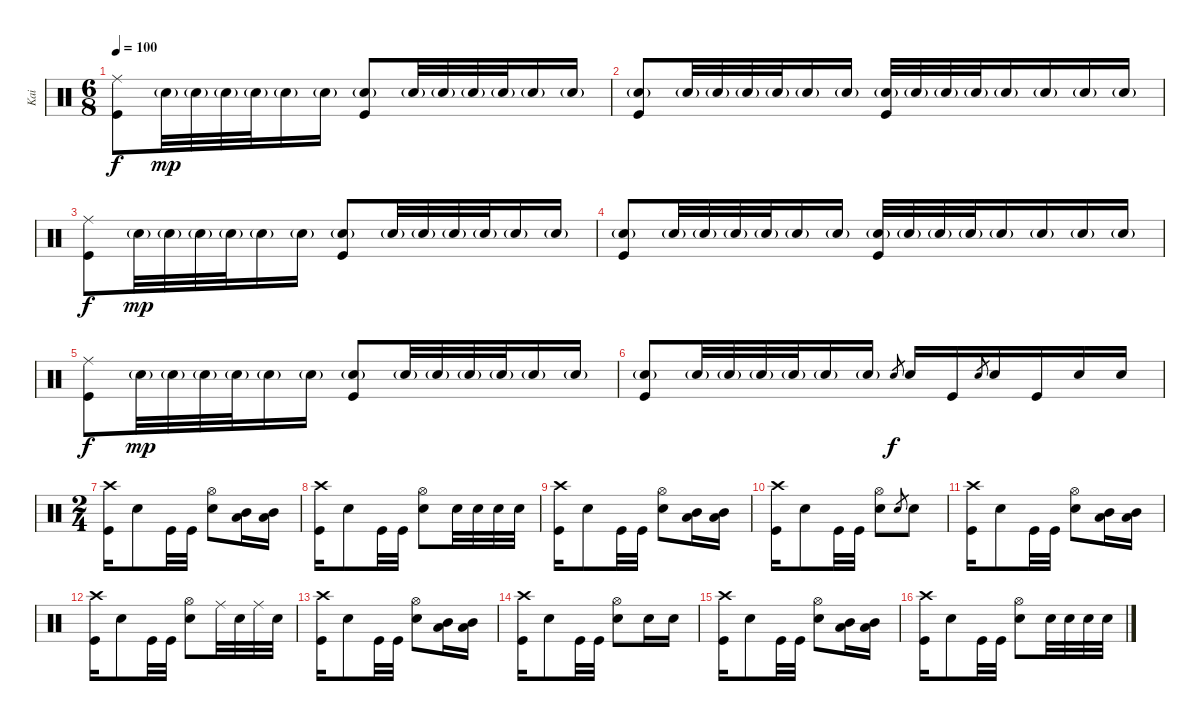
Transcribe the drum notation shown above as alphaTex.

\track ("Kai" "Kai") {instrument percussion}
\staff {score}
\articulation defaults
\ts (6 8)
\tempo 100
\clef neutral
\ks c
("Ride (middle)" "Kick (hit)").8{dy f} "Snare (hit) 2"{g}.32{dy mp} "Snare (hit) 2"{g}.32 "Snare (hit) 2"{g}.32 "Snare (hit) 2"{g}.32 "Snare (hit) 2"{g}.16 "Snare (hit) 2"{g}.16 ("Snare (hit) 2"{g} "Kick (hit)").8 "Snare (hit) 2"{g}.32 "Snare (hit) 2"{g}.32 "Snare (hit) 2"{g}.32 "Snare (hit) 2"{g}.32 "Snare (hit) 2"{g}.16 "Snare (hit) 2"{g}.16 |
("Snare (hit) 2"{g} "Kick (hit)").8 "Snare (hit) 2"{g}.32 "Snare (hit) 2"{g}.32 "Snare (hit) 2"{g}.32 "Snare (hit) 2"{g}.32 "Snare (hit) 2"{g}.16 "Snare (hit) 2"{g}.16 ("Snare (hit) 2"{g} "Kick (hit)").32 "Snare (hit) 2"{g}.32 "Snare (hit) 2"{g}.32 "Snare (hit) 2"{g}.32 "Snare (hit) 2"{g}.16 "Snare (hit) 2"{g}.16 "Snare (hit) 2"{g}.16 "Snare (hit) 2"{g}.16 |
("Ride (middle)" "Kick (hit)").8{dy f} "Snare (hit) 2"{g}.32{dy mp} "Snare (hit) 2"{g}.32 "Snare (hit) 2"{g}.32 "Snare (hit) 2"{g}.32 "Snare (hit) 2"{g}.16 "Snare (hit) 2"{g}.16 ("Snare (hit) 2"{g} "Kick (hit)").8 "Snare (hit) 2"{g}.32 "Snare (hit) 2"{g}.32 "Snare (hit) 2"{g}.32 "Snare (hit) 2"{g}.32 "Snare (hit) 2"{g}.16 "Snare (hit) 2"{g}.16 |
("Snare (hit) 2"{g} "Kick (hit)").8 "Snare (hit) 2"{g}.32 "Snare (hit) 2"{g}.32 "Snare (hit) 2"{g}.32 "Snare (hit) 2"{g}.32 "Snare (hit) 2"{g}.16 "Snare (hit) 2"{g}.16 ("Snare (hit) 2"{g} "Kick (hit)").32 "Snare (hit) 2"{g}.32 "Snare (hit) 2"{g}.32 "Snare (hit) 2"{g}.32 "Snare (hit) 2"{g}.16 "Snare (hit) 2"{g}.16 "Snare (hit) 2"{g}.16 "Snare (hit) 2"{g}.16 |
("Ride (middle)" "Kick (hit)").8{dy f} "Snare (hit) 2"{g}.32{dy mp} "Snare (hit) 2"{g}.32 "Snare (hit) 2"{g}.32 "Snare (hit) 2"{g}.32 "Snare (hit) 2"{g}.16 "Snare (hit) 2"{g}.16 ("Snare (hit) 2"{g} "Kick (hit)").8 "Snare (hit) 2"{g}.32 "Snare (hit) 2"{g}.32 "Snare (hit) 2"{g}.32 "Snare (hit) 2"{g}.32 "Snare (hit) 2"{g}.16 "Snare (hit) 2"{g}.16 |
("Snare (hit) 2"{g} "Kick (hit)").8 "Snare (hit) 2"{g}.32 "Snare (hit) 2"{g}.32 "Snare (hit) 2"{g}.32 "Snare (hit) 2"{g}.32 "Snare (hit) 2"{g}.16 "Snare (hit) 2"{g}.16 "Snare (hit) 2".8{gr dy f} "Snare (hit) 2".16 "Kick (hit)".16 "Snare (hit) 2".8{gr} "Snare (hit) 2".16 "Kick (hit)".16 "Snare (hit) 2".16 "Snare (hit) 2".16 |
\ts (2 4)
("Crash high (hit)" "Kick (hit)").16 "Snare (hit) 2".8 "Kick (hit)".32 "Kick (hit)".32 ("Hi-Hat (open)" "Snare (hit) 2").8 ("Low Tom (hit)" "Mid Tom (hit)").16 ("Low Tom (hit)" "Mid Tom (hit)").16 |
("Crash high (hit)" "Kick (hit)").16 "Snare (hit) 2".8 "Kick (hit)".32 "Kick (hit)".32 ("Hi-Hat (open)" "Snare (hit) 2").8 "Snare (hit) 2".32 "Snare (hit) 2".32 "Snare (hit) 2".32 "Snare (hit) 2".32 |
("Crash high (hit)" "Kick (hit)").16 "Snare (hit) 2".8 "Kick (hit)".32 "Kick (hit)".32 ("Hi-Hat (open)" "Snare (hit) 2").8 ("Low Tom (hit)" "Mid Tom (hit)").16 ("Low Tom (hit)" "Mid Tom (hit)").16 |
("Crash high (hit)" "Kick (hit)").16 "Snare (hit) 2".8 "Kick (hit)".32 "Kick (hit)".32 ("Hi-Hat (open)" "Snare (hit) 2").8 "Snare (hit) 2".8{gr} "Snare (hit) 2".8 |
("Crash high (hit)" "Kick (hit)").16 "Snare (hit) 2".8 "Kick (hit)".32 "Kick (hit)".32 ("Hi-Hat (open)" "Snare (hit) 2").8 ("Low Tom (hit)" "Mid Tom (hit)").16 ("Low Tom (hit)" "Mid Tom (hit)").16 |
("Crash high (hit)" "Kick (hit)").16 "Snare (hit) 2".8 "Kick (hit)".32 "Kick (hit)".32 ("Hi-Hat (open)" "Snare (hit) 2").8 "Ride (middle)".32 "Snare (hit) 2".32 "Ride (middle)".32 "Snare (hit) 2".32 |
("Crash high (hit)" "Kick (hit)").16 "Snare (hit) 2".8 "Kick (hit)".32 "Kick (hit)".32 ("Hi-Hat (open)" "Snare (hit) 2").8 ("Low Tom (hit)" "Mid Tom (hit)").16 ("Low Tom (hit)" "Mid Tom (hit)").16 |
("Crash high (hit)" "Kick (hit)").16 "Snare (hit) 2".8 "Kick (hit)".32 "Kick (hit)".32 ("Hi-Hat (open)" "Snare (hit) 2").8 "Snare (hit) 2".16 "Snare (hit) 2".16 |
("Crash high (hit)" "Kick (hit)").16 "Snare (hit) 2".8 "Kick (hit)".32 "Kick (hit)".32 ("Hi-Hat (open)" "Snare (hit) 2").8 ("Low Tom (hit)" "Mid Tom (hit)").16 ("Low Tom (hit)" "Mid Tom (hit)").16 |
("Crash high (hit)" "Kick (hit)").16 "Snare (hit) 2".8 "Kick (hit)".32 "Kick (hit)".32 ("Hi-Hat (open)" "Snare (hit) 2").8 "Snare (hit) 2".32 "Snare (hit) 2".32 "Snare (hit) 2".32 "Snare (hit) 2".32
